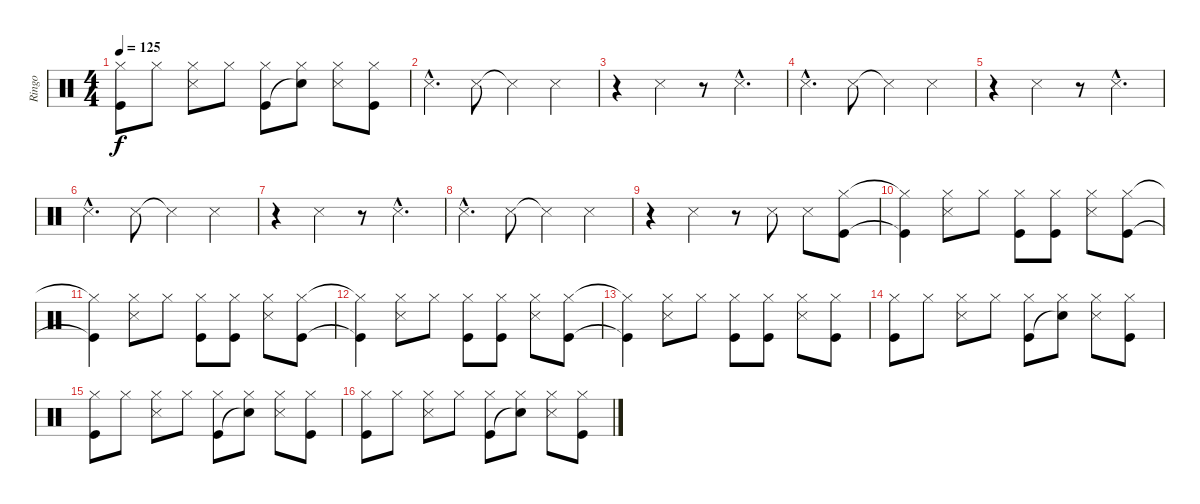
\track ("Ringo" "Ringo") {instrument percussion}
\staff {score}
\articulation defaults
\ts (4 4)
\tempo 125
\clef neutral
\ks c
("Hi-Hat (closed)" "Kick (hit)").8{dy f} "Hi-Hat (closed)".8 ("Hi-Hat (closed)" "Snare (side stick) 3").8 "Hi-Hat (closed)".8 ("Hi-Hat (closed)" "Kick (hit)").8 ("Hi-Hat (closed)" "Snare (hit)"{t}).8 ("Hi-Hat (closed)" "Snare (side stick) 3").8 ("Hi-Hat (closed)" "Kick (hit)").8 |
"Snare (side stick) 3"{hac}.4{d} "Snare (side stick) 3".8 "Snare (side stick) 3"{t}.4 "Snare (side stick) 3".4 |
r.4 "Snare (side stick) 3".4 r.8 "Snare (side stick) 3"{hac}.4{d} |
"Snare (side stick) 3"{hac}.4{d} "Snare (side stick) 3".8 "Snare (side stick) 3"{t}.4 "Snare (side stick) 3".4 |
r.4 "Snare (side stick) 3".4 r.8 "Snare (side stick) 3"{hac}.4{d} |
"Snare (side stick) 3"{hac}.4{d} "Snare (side stick) 3".8 "Snare (side stick) 3"{t}.4 "Snare (side stick) 3".4 |
r.4 "Snare (side stick) 3".4 r.8 "Snare (side stick) 3"{hac}.4{d} |
"Snare (side stick) 3"{hac}.4{d} "Snare (side stick) 3".8 "Snare (side stick) 3"{t}.4 "Snare (side stick) 3".4 |
r.4 "Snare (side stick) 3".4 r.8 "Snare (side stick) 3".8 "Snare (side stick) 3".8 ("Hi-Hat (closed)" "Kick (hit)").8 |
("Hi-Hat (closed)"{t} "Kick (hit)"{t}).4 ("Hi-Hat (closed)" "Snare (side stick) 3").8 "Hi-Hat (closed)".8 ("Hi-Hat (closed)" "Kick (hit)").8 ("Hi-Hat (closed)" "Kick (hit)").8 ("Hi-Hat (closed)" "Snare (side stick) 3").8 ("Hi-Hat (closed)" "Kick (hit)").8 |
("Hi-Hat (closed)"{t} "Kick (hit)"{t}).4 ("Hi-Hat (closed)" "Snare (side stick) 3").8 "Hi-Hat (closed)".8 ("Hi-Hat (closed)" "Kick (hit)").8 ("Hi-Hat (closed)" "Kick (hit)").8 ("Hi-Hat (closed)" "Snare (side stick) 3").8 ("Hi-Hat (closed)" "Kick (hit)").8 |
("Hi-Hat (closed)"{t} "Kick (hit)"{t}).4 ("Hi-Hat (closed)" "Snare (side stick) 3").8 "Hi-Hat (closed)".8 ("Hi-Hat (closed)" "Kick (hit)").8 ("Hi-Hat (closed)" "Kick (hit)").8 ("Hi-Hat (closed)" "Snare (side stick) 3").8 ("Hi-Hat (closed)" "Kick (hit)").8 |
("Hi-Hat (closed)"{t} "Kick (hit)"{t}).4 ("Hi-Hat (closed)" "Snare (side stick) 3").8 "Hi-Hat (closed)".8 ("Hi-Hat (closed)" "Kick (hit)").8 ("Hi-Hat (closed)" "Kick (hit)").8 ("Hi-Hat (closed)" "Snare (side stick) 3").8 ("Hi-Hat (closed)" "Kick (hit)").8 |
("Hi-Hat (closed)" "Kick (hit)").8 "Hi-Hat (closed)".8 ("Hi-Hat (closed)" "Snare (side stick) 3").8 "Hi-Hat (closed)".8 ("Hi-Hat (closed)" "Kick (hit)").8 ("Hi-Hat (closed)" "Snare (hit)"{t}).8 ("Hi-Hat (closed)" "Snare (side stick) 3").8 ("Hi-Hat (closed)" "Kick (hit)").8 |
("Hi-Hat (closed)" "Kick (hit)").8 "Hi-Hat (closed)".8 ("Hi-Hat (closed)" "Snare (side stick) 3").8 "Hi-Hat (closed)".8 ("Hi-Hat (closed)" "Kick (hit)").8 ("Hi-Hat (closed)" "Snare (hit)"{t}).8 ("Hi-Hat (closed)" "Snare (side stick) 3").8 ("Hi-Hat (closed)" "Kick (hit)").8 |
("Hi-Hat (closed)" "Kick (hit)").8 "Hi-Hat (closed)".8 ("Hi-Hat (closed)" "Snare (side stick) 3").8 "Hi-Hat (closed)".8 ("Hi-Hat (closed)" "Kick (hit)").8 ("Hi-Hat (closed)" "Snare (hit)"{t}).8 ("Hi-Hat (closed)" "Snare (side stick) 3").8 ("Hi-Hat (closed)" "Kick (hit)").8
